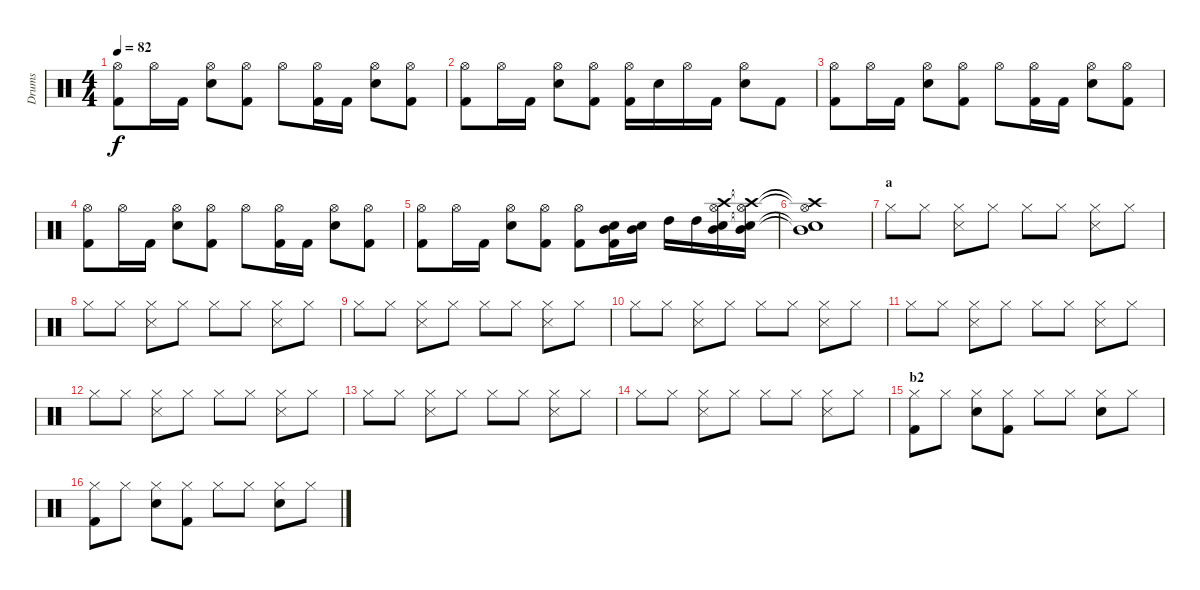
\track ("Drums" "Drums") {instrument percussion}
\staff {score}
\articulation defaults
\ts (4 4)
\tempo 82
\clef neutral
\ks c
("Hi-Hat (open)" "Kick (hit) 2").8{dy f} "Hi-Hat (open)".16 "Kick (hit) 2".16 ("Hi-Hat (open)" "Snare (hit) 2").8 ("Hi-Hat (open)" "Kick (hit) 2").8 "Hi-Hat (open)".8 ("Hi-Hat (open)" "Kick (hit) 2").16 "Kick (hit) 2".16 ("Hi-Hat (open)" "Snare (hit) 2").8 ("Hi-Hat (open)" "Kick (hit) 2").8 |
("Hi-Hat (open)" "Kick (hit) 2").8 "Hi-Hat (open)".16 "Kick (hit) 2".16 ("Hi-Hat (open)" "Snare (hit) 2").8 ("Hi-Hat (open)" "Kick (hit) 2").8 ("Hi-Hat (open)" "Kick (hit) 2").16 "Snare (hit) 2".16 "Hi-Hat (open)".16 "Kick (hit) 2".16 ("Hi-Hat (open)" "Snare (hit) 2").8 "Kick (hit) 2".8 |
("Hi-Hat (open)" "Kick (hit) 2").8 "Hi-Hat (open)".16 "Kick (hit) 2".16 ("Hi-Hat (open)" "Snare (hit) 2").8 ("Hi-Hat (open)" "Kick (hit) 2").8 "Hi-Hat (open)".8 ("Hi-Hat (open)" "Kick (hit) 2").16 "Kick (hit) 2".16 ("Hi-Hat (open)" "Snare (hit) 2").8 ("Hi-Hat (open)" "Kick (hit) 2").8 |
("Hi-Hat (open)" "Kick (hit) 2").8 "Hi-Hat (open)".16 "Kick (hit) 2".16 ("Hi-Hat (open)" "Snare (hit) 2").8 ("Hi-Hat (open)" "Kick (hit) 2").8 "Hi-Hat (open)".8 ("Hi-Hat (open)" "Kick (hit) 2").16 "Kick (hit) 2".16 ("Hi-Hat (open)" "Snare (hit) 2").8 ("Hi-Hat (open)" "Kick (hit) 2").8 |
("Hi-Hat (open)" "Kick (hit) 2").8 "Hi-Hat (open)".16 "Kick (hit) 2".16 ("Hi-Hat (open)" "Snare (hit) 2").8 ("Hi-Hat (open)" "Kick (hit) 2").8 ("Hi-Hat (open)" "Kick (hit) 2").8 ("Snare (hit) 2" "Mid Tom (hit)" "Kick (hit) 2").16 ("Snare (hit) 2" "Mid Tom (hit)").16 "High Tom (hit)".16 "High Tom (hit)".16 ("Crash high (hit)" "Hi-Hat (open)" "Snare (hit) 2" "Mid Tom (hit)").16 ("Crash high (hit)"{t} "Hi-Hat (open)"{t} "Snare (hit) 2"{t} "Mid Tom (hit)"{t}).16 |
("Crash high (hit)"{t} "Hi-Hat (open)"{t} "Snare (hit) 2"{t} "Mid Tom (hit)"{t}).1 |
\section ("" "a")
"Hi-Hat (closed)".8 "Hi-Hat (closed)".8 ("Hi-Hat (closed)" "Snare (side stick) 3").8 "Hi-Hat (closed)".8 "Hi-Hat (closed)".8 "Hi-Hat (closed)".8 ("Hi-Hat (closed)" "Snare (side stick) 3").8 "Hi-Hat (closed)".8 |
"Hi-Hat (closed)".8 "Hi-Hat (closed)".8 ("Hi-Hat (closed)" "Snare (side stick) 3").8 "Hi-Hat (closed)".8 "Hi-Hat (closed)".8 "Hi-Hat (closed)".8 ("Hi-Hat (closed)" "Snare (side stick) 3").8 "Hi-Hat (closed)".8 |
"Hi-Hat (closed)".8 "Hi-Hat (closed)".8 ("Hi-Hat (closed)" "Snare (side stick) 3").8 "Hi-Hat (closed)".8 "Hi-Hat (closed)".8 "Hi-Hat (closed)".8 ("Hi-Hat (closed)" "Snare (side stick) 3").8 "Hi-Hat (closed)".8 |
"Hi-Hat (closed)".8 "Hi-Hat (closed)".8 ("Hi-Hat (closed)" "Snare (side stick) 3").8 "Hi-Hat (closed)".8 "Hi-Hat (closed)".8 "Hi-Hat (closed)".8 ("Hi-Hat (closed)" "Snare (side stick) 3").8 "Hi-Hat (closed)".8 |
"Hi-Hat (closed)".8 "Hi-Hat (closed)".8 ("Hi-Hat (closed)" "Snare (side stick) 3").8 "Hi-Hat (closed)".8 "Hi-Hat (closed)".8 "Hi-Hat (closed)".8 ("Hi-Hat (closed)" "Snare (side stick) 3").8 "Hi-Hat (closed)".8 |
"Hi-Hat (closed)".8 "Hi-Hat (closed)".8 ("Hi-Hat (closed)" "Snare (side stick) 3").8 "Hi-Hat (closed)".8 "Hi-Hat (closed)".8 "Hi-Hat (closed)".8 ("Hi-Hat (closed)" "Snare (side stick) 3").8 "Hi-Hat (closed)".8 |
"Hi-Hat (closed)".8 "Hi-Hat (closed)".8 ("Hi-Hat (closed)" "Snare (side stick) 3").8 "Hi-Hat (closed)".8 "Hi-Hat (closed)".8 "Hi-Hat (closed)".8 ("Hi-Hat (closed)" "Snare (side stick) 3").8 "Hi-Hat (closed)".8 |
"Hi-Hat (closed)".8 "Hi-Hat (closed)".8 ("Hi-Hat (closed)" "Snare (side stick) 3").8 "Hi-Hat (closed)".8 "Hi-Hat (closed)".8 "Hi-Hat (closed)".8 ("Hi-Hat (closed)" "Snare (side stick) 3").8 "Hi-Hat (closed)".8 |
\section ("" "b2")
("Hi-Hat (closed)" "Kick (hit) 2").8 "Hi-Hat (closed)".8 ("Hi-Hat (closed)" "Snare (hit) 2").8 ("Hi-Hat (closed)" "Kick (hit) 2").8 "Hi-Hat (closed)".8 "Hi-Hat (closed)".8 ("Hi-Hat (closed)" "Snare (hit) 2").8 "Hi-Hat (closed)".8 |
("Hi-Hat (closed)" "Kick (hit) 2").8 "Hi-Hat (closed)".8 ("Hi-Hat (closed)" "Snare (hit) 2").8 ("Hi-Hat (closed)" "Kick (hit) 2").8 "Hi-Hat (closed)".8 "Hi-Hat (closed)".8 ("Hi-Hat (closed)" "Snare (hit) 2").8 "Hi-Hat (closed)".8
